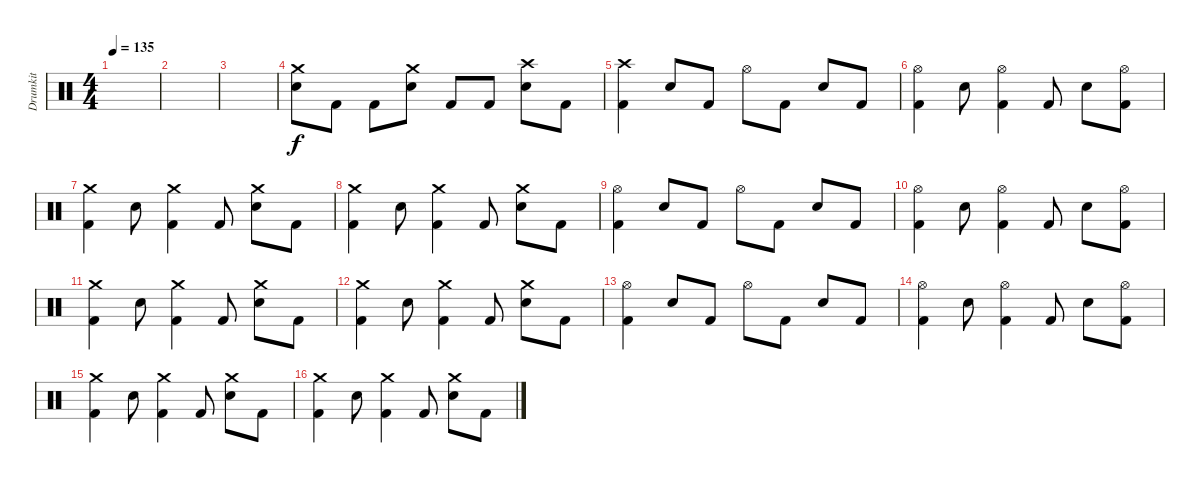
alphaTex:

\track ("Drumkit" "Drumkit") {instrument percussion}
\staff {score}
\articulation defaults
\ts (4 4)
\tempo 135
\clef neutral
\ks c
|
|
|
("Crash medium (hit)" "Snare (hit) 2").8 "Kick (hit) 2".8 "Kick (hit) 2".8 ("Crash medium (hit)" "Snare (hit) 2").8 "Kick (hit) 2".8 "Kick (hit) 2".8 ("Crash high (hit)" "Snare (hit) 2").8 "Kick (hit) 2".8 |
("Crash high (hit)" "Kick (hit) 2").4 "Snare (hit) 2".8 "Kick (hit) 2".8 "Hi-Hat (open)".8 "Kick (hit) 2".8 "Snare (hit) 2".8 "Kick (hit) 2".8 |
("Hi-Hat (open)" "Kick (hit) 2").4 "Snare (hit) 2".8 ("Hi-Hat (open)" "Kick (hit) 2").4 "Kick (hit) 2".8 "Snare (hit) 2".8 ("Hi-Hat (open)" "Kick (hit) 2").8 |
("Crash medium (hit)" "Kick (hit) 2").4 "Snare (hit) 2".8 ("Crash medium (hit)" "Kick (hit) 2").4 "Kick (hit) 2".8 ("Crash medium (hit)" "Snare (hit) 2").8 "Kick (hit) 2".8 |
("Crash medium (hit)" "Kick (hit) 2").4 "Snare (hit) 2".8 ("Crash medium (hit)" "Kick (hit) 2").4 "Kick (hit) 2".8 ("Crash medium (hit)" "Snare (hit) 2").8 "Kick (hit) 2".8 |
("Hi-Hat (open)" "Kick (hit) 2").4 "Snare (hit) 2".8 "Kick (hit) 2".8 "Hi-Hat (open)".8 "Kick (hit) 2".8 "Snare (hit) 2".8 "Kick (hit) 2".8 |
("Hi-Hat (open)" "Kick (hit) 2").4 "Snare (hit) 2".8 ("Hi-Hat (open)" "Kick (hit) 2").4 "Kick (hit) 2".8 "Snare (hit) 2".8 ("Hi-Hat (open)" "Kick (hit) 2").8 |
("Crash medium (hit)" "Kick (hit) 2").4 "Snare (hit) 2".8 ("Crash medium (hit)" "Kick (hit) 2").4 "Kick (hit) 2".8 ("Crash medium (hit)" "Snare (hit) 2").8 "Kick (hit) 2".8 |
("Crash medium (hit)" "Kick (hit) 2").4 "Snare (hit) 2".8 ("Crash medium (hit)" "Kick (hit) 2").4 "Kick (hit) 2".8 ("Crash medium (hit)" "Snare (hit) 2").8 "Kick (hit) 2".8 |
("Hi-Hat (open)" "Kick (hit) 2").4 "Snare (hit) 2".8 "Kick (hit) 2".8 "Hi-Hat (open)".8 "Kick (hit) 2".8 "Snare (hit) 2".8 "Kick (hit) 2".8 |
("Hi-Hat (open)" "Kick (hit) 2").4 "Snare (hit) 2".8 ("Hi-Hat (open)" "Kick (hit) 2").4 "Kick (hit) 2".8 "Snare (hit) 2".8 ("Hi-Hat (open)" "Kick (hit) 2").8 |
("Crash medium (hit)" "Kick (hit) 2").4 "Snare (hit) 2".8 ("Crash medium (hit)" "Kick (hit) 2").4 "Kick (hit) 2".8 ("Crash medium (hit)" "Snare (hit) 2").8 "Kick (hit) 2".8 |
("Crash medium (hit)" "Kick (hit) 2").4 "Snare (hit) 2".8 ("Crash medium (hit)" "Kick (hit) 2").4 "Kick (hit) 2".8 ("Crash medium (hit)" "Snare (hit) 2").8 "Kick (hit) 2".8
